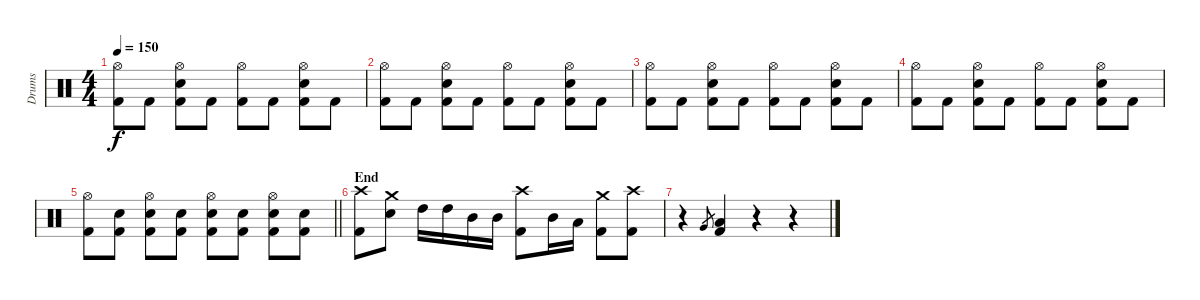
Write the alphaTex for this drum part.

\track ("Drums" "Drums") {instrument percussion}
\staff {score}
\articulation defaults
\ts (4 4)
\tempo 150
\clef neutral
\ks c
("Hi-Hat (open)" "Kick (hit) 2").8{dy f} "Kick (hit) 2".8 ("Hi-Hat (open)" "Snare (hit) 2" "Kick (hit) 2").8 "Kick (hit) 2".8 ("Hi-Hat (open)" "Kick (hit) 2").8 "Kick (hit) 2".8 ("Hi-Hat (open)" "Snare (hit) 2" "Kick (hit) 2").8 "Kick (hit) 2".8 |
("Hi-Hat (open)" "Kick (hit) 2").8 "Kick (hit) 2".8 ("Hi-Hat (open)" "Snare (hit) 2" "Kick (hit) 2").8 "Kick (hit) 2".8 ("Hi-Hat (open)" "Kick (hit) 2").8 "Kick (hit) 2".8 ("Hi-Hat (open)" "Snare (hit) 2" "Kick (hit) 2").8 "Kick (hit) 2".8 |
("Hi-Hat (open)" "Kick (hit) 2").8 "Kick (hit) 2".8 ("Hi-Hat (open)" "Snare (hit) 2" "Kick (hit) 2").8 "Kick (hit) 2".8 ("Hi-Hat (open)" "Kick (hit) 2").8 "Kick (hit) 2".8 ("Hi-Hat (open)" "Snare (hit) 2" "Kick (hit) 2").8 "Kick (hit) 2".8 |
("Hi-Hat (open)" "Kick (hit) 2").8 "Kick (hit) 2".8 ("Hi-Hat (open)" "Snare (hit) 2" "Kick (hit) 2").8 "Kick (hit) 2".8 ("Hi-Hat (open)" "Kick (hit) 2").8 "Kick (hit) 2".8 ("Hi-Hat (open)" "Snare (hit) 2" "Kick (hit) 2").8 "Kick (hit) 2".8 |
\barLineRight lightlight
("Hi-Hat (open)" "Kick (hit) 2").8 ("Snare (hit) 2" "Kick (hit) 2").8 ("Hi-Hat (open)" "Snare (hit) 2" "Kick (hit) 2").8 ("Snare (hit) 2" "Kick (hit) 2").8 ("Hi-Hat (open)" "Snare (hit) 2" "Kick (hit) 2").8 ("Snare (hit) 2" "Kick (hit) 2").8 ("Hi-Hat (open)" "Snare (hit) 2" "Kick (hit) 2").8 ("Snare (hit) 2" "Kick (hit) 2").8 |
\section ("" "End")
("Crash high (hit)" "Kick (hit) 2").8 ("Crash medium (hit)" "Snare (hit) 2").8 "High Tom (hit)".16 "High Tom (hit)".16 "Mid Tom (hit)".16 "Mid Tom (hit)".16 ("Crash high (hit)" "Kick (hit) 2").8 "Mid Tom (hit)".16 "Low Tom (hit)".16 ("Crash medium (hit)" "Kick (hit) 2").8 ("Crash high (hit)" "Kick (hit) 2").8 |
r.4 "Very Low Tom (hit)".8{gr} ("Low Floor Tom (hit)" "Kick (hit) 2").4 r.4 r.4
